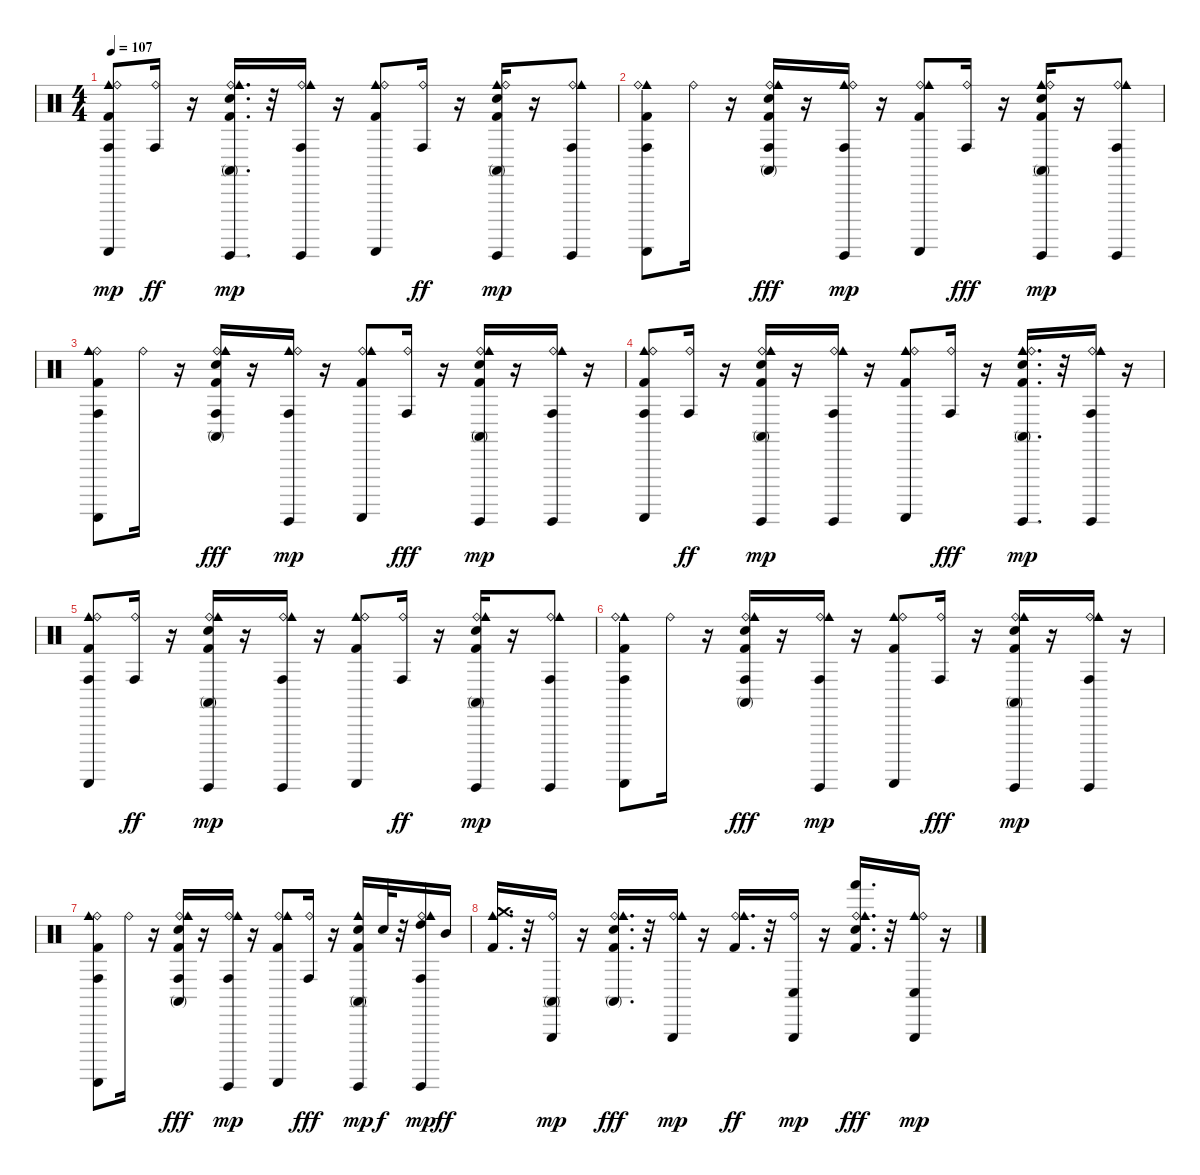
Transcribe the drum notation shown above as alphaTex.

\track "" {instrument percussion}
\staff {score}
\articulation defaults
\ts (4 4)
\tempo 107
\clef neutral
\ks c
("Kick (hit) 2" "Cowbell medium (hit)" "Conga high (hit)" "Guiro (scrap-return)" "Ride (bell)").8{dy mp} ("Ride (bell)" "Conga high (hit)").16{dy ff} r.16 ("Kick (hit) 2" "Electric Snare (hit)" "Ride (bell)" "Cowbell medium (hit)" "Conga high (mute)" "Guiro (hit)").16{d dy mp} r.32 ("Ride (bell)" "Cowbell medium (hit)" "Conga high (hit)" "Guiro (hit)").16 r.16 ("Kick (hit) 2" "Cowbell medium (hit)" "Ride (bell)" "Guiro (scrap-return)").8 ("Ride (bell)" "Conga high (hit)").16{dy ff} r.16 ("Kick (hit) 2" "Electric Snare (hit)" "Cowbell medium (hit)" "Ride (bell)" "Conga high (mute)" "Guiro (hit)").16{dy mp} r.16 ("Ride (bell)" "Cowbell medium (hit)" "Conga high (hit)" "Guiro (hit)").8 |
("Kick (hit) 2" "Cowbell medium (hit)" "Conga high (hit)" "Ride (bell)" "Guiro (scrap-return)").8 "Ride (bell)".16 r.16 ("Kick (hit) 2" "Electric Snare (hit)" "Ride (bell)" "Cowbell medium (hit)" "Conga high (mute)" "Conga high (hit)").16{dy fff} r.16 ("Cowbell medium (hit)" "Ride (bell)" "Conga high (hit)" "Guiro (hit)").16{dy mp} r.16 ("Kick (hit) 2" "Ride (bell)" "Cowbell medium (hit)" "Guiro (scrap-return)").8 ("Ride (bell)" "Conga high (hit)").16{dy fff} r.16 ("Kick (hit) 2" "Electric Snare (hit)" "Cowbell medium (hit)" "Conga high (mute)" "Ride (bell)" "Guiro (hit)").16{dy mp} r.16 ("Ride (bell)" "Cowbell medium (hit)" "Conga high (hit)" "Guiro (hit)").8 |
("Kick (hit) 2" "Ride (bell)" "Cowbell medium (hit)" "Conga high (hit)" "Guiro (scrap-return)").8 "Ride (bell)".16 r.16 ("Kick (hit) 2" "Electric Snare (hit)" "Ride (bell)" "Cowbell medium (hit)" "Conga high (mute)" "Conga high (hit)").16{dy fff} r.16 ("Cowbell medium (hit)" "Ride (bell)" "Conga high (hit)" "Guiro (hit)").16{dy mp} r.16 ("Kick (hit) 2" "Ride (bell)" "Cowbell medium (hit)" "Guiro (scrap-return)").8 ("Ride (bell)" "Conga high (hit)").16{dy fff} r.16 ("Electric Snare (hit)" "Kick (hit) 2" "Ride (bell)" "Cowbell medium (hit)" "Conga high (mute)" "Guiro (hit)").16{dy mp} r.16 ("Ride (bell)" "Cowbell medium (hit)" "Conga high (hit)" "Guiro (hit)").16 r.16 |
("Kick (hit) 2" "Cowbell medium (hit)" "Conga high (hit)" "Ride (bell)" "Guiro (scrap-return)").8 ("Ride (bell)" "Conga high (hit)").16{dy ff} r.16 ("Kick (hit) 2" "Electric Snare (hit)" "Ride (bell)" "Cowbell medium (hit)" "Conga high (mute)" "Guiro (hit)").16{dy mp} r.16 ("Ride (bell)" "Cowbell medium (hit)" "Conga high (hit)" "Guiro (hit)").16 r.16 ("Kick (hit) 2" "Cowbell medium (hit)" "Guiro (scrap-return)" "Ride (bell)").8 ("Ride (bell)" "Conga high (hit)").16{dy fff} r.16 ("Kick (hit) 2" "Electric Snare (hit)" "Cowbell medium (hit)" "Ride (bell)" "Conga high (mute)" "Guiro (hit)").16{d dy mp} r.32 ("Ride (bell)" "Cowbell medium (hit)" "Conga high (hit)" "Guiro (hit)").16 r.16 |
("Kick (hit) 2" "Cowbell medium (hit)" "Conga high (hit)" "Guiro (scrap-return)" "Ride (bell)").8 ("Ride (bell)" "Conga high (hit)").16{dy ff} r.16 ("Kick (hit) 2" "Electric Snare (hit)" "Ride (bell)" "Cowbell medium (hit)" "Conga high (mute)" "Guiro (hit)").16{dy mp} r.16 ("Ride (bell)" "Cowbell medium (hit)" "Conga high (hit)" "Guiro (hit)").16 r.16 ("Kick (hit) 2" "Cowbell medium (hit)" "Guiro (scrap-return)" "Ride (bell)").8 ("Ride (bell)" "Conga high (hit)").16{dy ff} r.16 ("Electric Snare (hit)" "Kick (hit) 2" "Ride (bell)" "Cowbell medium (hit)" "Conga high (mute)" "Guiro (hit)").16{dy mp} r.16 ("Ride (bell)" "Cowbell medium (hit)" "Conga high (hit)" "Guiro (hit)").8 |
("Kick (hit) 2" "Cowbell medium (hit)" "Conga high (hit)" "Guiro (scrap-return)" "Ride (bell)").8 "Ride (bell)".16 r.16 ("Kick (hit) 2" "Electric Snare (hit)" "Ride (bell)" "Cowbell medium (hit)" "Conga high (mute)" "Conga high (hit)").16{dy fff} r.16 ("Ride (bell)" "Cowbell medium (hit)" "Conga high (hit)" "Guiro (hit)").16{dy mp} r.16 ("Kick (hit) 2" "Cowbell medium (hit)" "Guiro (scrap-return)" "Ride (bell)").8 ("Ride (bell)" "Conga high (hit)").16{dy fff} r.16 ("Kick (hit) 2" "Electric Snare (hit)" "Ride (bell)" "Cowbell medium (hit)" "Conga high (mute)" "Guiro (hit)").16{dy mp} r.16 ("Ride (bell)" "Cowbell medium (hit)" "Conga high (hit)" "Guiro (hit)").16 r.16 |
("Kick (hit) 2" "Ride (bell)" "Cowbell medium (hit)" "Conga high (hit)" "Guiro (scrap-return)").8 "Ride (bell)".16 r.16 ("Electric Snare (hit)" "Kick (hit) 2" "Ride (bell)" "Cowbell medium (hit)" "Conga high (mute)" "Conga high (hit)").16{dy fff} r.16 ("Ride (bell)" "Cowbell medium (hit)" "Conga high (hit)" "Guiro (hit)").16{dy mp} r.16 ("Kick (hit) 2" "Ride (bell)" "Cowbell medium (hit)" "Guiro (scrap-return)").8 ("Ride (bell)" "Conga high (hit)").16{dy fff} r.16 ("Kick (hit) 2" "Electric Snare (hit)" "Cowbell medium (hit)" "Conga high (mute)" "Guiro (hit)").16{dy mp} "Electric Snare (hit)".32{dy f} r.32 ("High Tom (hit)" "Ride (bell)" "Cowbell medium (hit)" "Conga high (hit)" "Guiro (hit)").16{dy mp} "Mid Tom (hit)".16{dy ff} |
("Kick (hit) 2" "Cowbell medium (hit)" "Crash medium (hit)").16{d} r.32 ("Ride (bell)" "Conga high (mute)" "Triangle (hit)").16{dy mp} r.16 ("Electric Snare (hit)" "Kick (hit) 2" "Ride (bell)" "Cowbell medium (hit)" "Conga high (mute)").16{d dy fff} r.32 ("Ride (bell)" "Cowbell medium (hit)" "Triangle (hit)").16{dy mp} r.16 ("Kick (hit) 2" "Ride (bell)" "Cowbell medium (hit)").16{d dy ff} r.32 ("Ride (bell)" "Conga low (hit)" "Triangle (hit)").16{dy mp} r.16 ("Kick (hit) 2" "Electric Snare (hit)" "Ride (bell)" "Cowbell medium (hit)" "Hand (hit)").16{d dy fff} r.32 ("Cowbell medium (hit)" "Ride (bell)" "Conga low (hit)" "Triangle (hit)").16{dy mp} r.16
